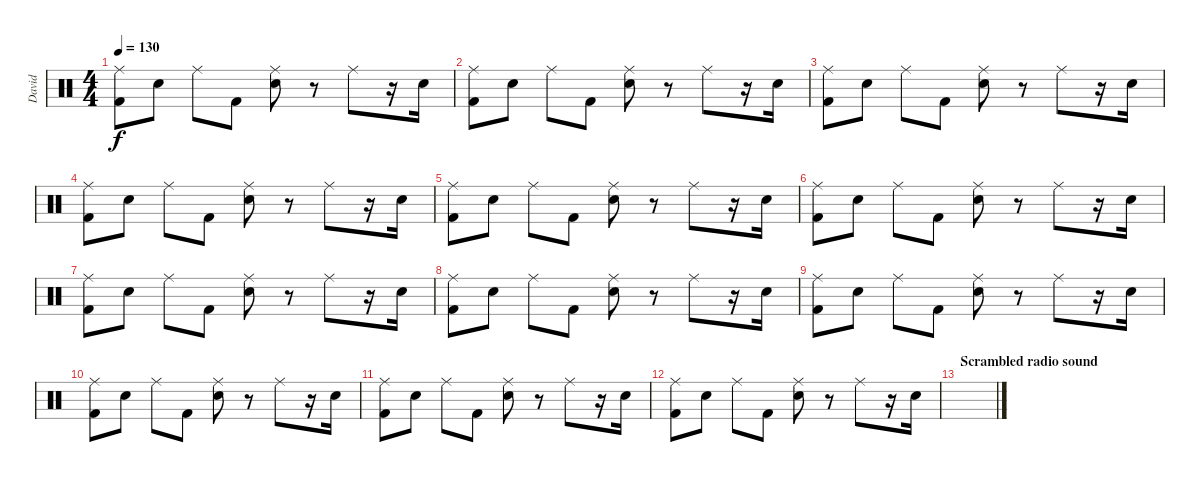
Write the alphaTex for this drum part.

\track ("David" "David") {instrument percussion}
\staff {score}
\articulation defaults
\ts (4 4)
\tempo 130
\clef neutral
\ks c
("Ride (middle)" "Kick (hit) 2").8{dy f} "Snare (hit) 2".8 "Ride (middle)".8 "Kick (hit) 2".8 ("Ride (middle)" "Snare (hit) 2").8 r.8 "Ride (middle)".8 r.16 "Snare (hit) 2".16 |
("Ride (middle)" "Kick (hit) 2").8 "Snare (hit) 2".8 "Ride (middle)".8 "Kick (hit) 2".8 ("Ride (middle)" "Snare (hit) 2").8 r.8 "Ride (middle)".8 r.16 "Snare (hit) 2".16 |
("Ride (middle)" "Kick (hit) 2").8 "Snare (hit) 2".8 "Ride (middle)".8 "Kick (hit) 2".8 ("Ride (middle)" "Snare (hit) 2").8 r.8 "Ride (middle)".8 r.16 "Snare (hit) 2".16 |
("Ride (middle)" "Kick (hit) 2").8 "Snare (hit) 2".8 "Ride (middle)".8 "Kick (hit) 2".8 ("Ride (middle)" "Snare (hit) 2").8 r.8 "Ride (middle)".8 r.16 "Snare (hit) 2".16 |
("Ride (middle)" "Kick (hit) 2").8 "Snare (hit) 2".8 "Ride (middle)".8 "Kick (hit) 2".8 ("Ride (middle)" "Snare (hit) 2").8 r.8 "Ride (middle)".8 r.16 "Snare (hit) 2".16 |
("Ride (middle)" "Kick (hit) 2").8 "Snare (hit) 2".8 "Ride (middle)".8 "Kick (hit) 2".8 ("Ride (middle)" "Snare (hit) 2").8 r.8 "Ride (middle)".8 r.16 "Snare (hit) 2".16 |
("Ride (middle)" "Kick (hit) 2").8 "Snare (hit) 2".8 "Ride (middle)".8 "Kick (hit) 2".8 ("Ride (middle)" "Snare (hit) 2").8 r.8 "Ride (middle)".8 r.16 "Snare (hit) 2".16 |
("Ride (middle)" "Kick (hit) 2").8 "Snare (hit) 2".8 "Ride (middle)".8 "Kick (hit) 2".8 ("Ride (middle)" "Snare (hit) 2").8 r.8 "Ride (middle)".8 r.16 "Snare (hit) 2".16 |
("Ride (middle)" "Kick (hit) 2").8 "Snare (hit) 2".8 "Ride (middle)".8 "Kick (hit) 2".8 ("Ride (middle)" "Snare (hit) 2").8 r.8 "Ride (middle)".8 r.16 "Snare (hit) 2".16 |
("Ride (middle)" "Kick (hit) 2").8 "Snare (hit) 2".8 "Ride (middle)".8 "Kick (hit) 2".8 ("Ride (middle)" "Snare (hit) 2").8 r.8 "Ride (middle)".8 r.16 "Snare (hit) 2".16 |
("Ride (middle)" "Kick (hit) 2").8 "Snare (hit) 2".8 "Ride (middle)".8 "Kick (hit) 2".8 ("Ride (middle)" "Snare (hit) 2").8 r.8 "Ride (middle)".8 r.16 "Snare (hit) 2".16 |
("Ride (middle)" "Kick (hit) 2").8 "Snare (hit) 2".8 "Ride (middle)".8 "Kick (hit) 2".8 ("Ride (middle)" "Snare (hit) 2").8 r.8 "Ride (middle)".8 r.16 "Snare (hit) 2".16 |
\section ("" "Scrambled radio sound")
